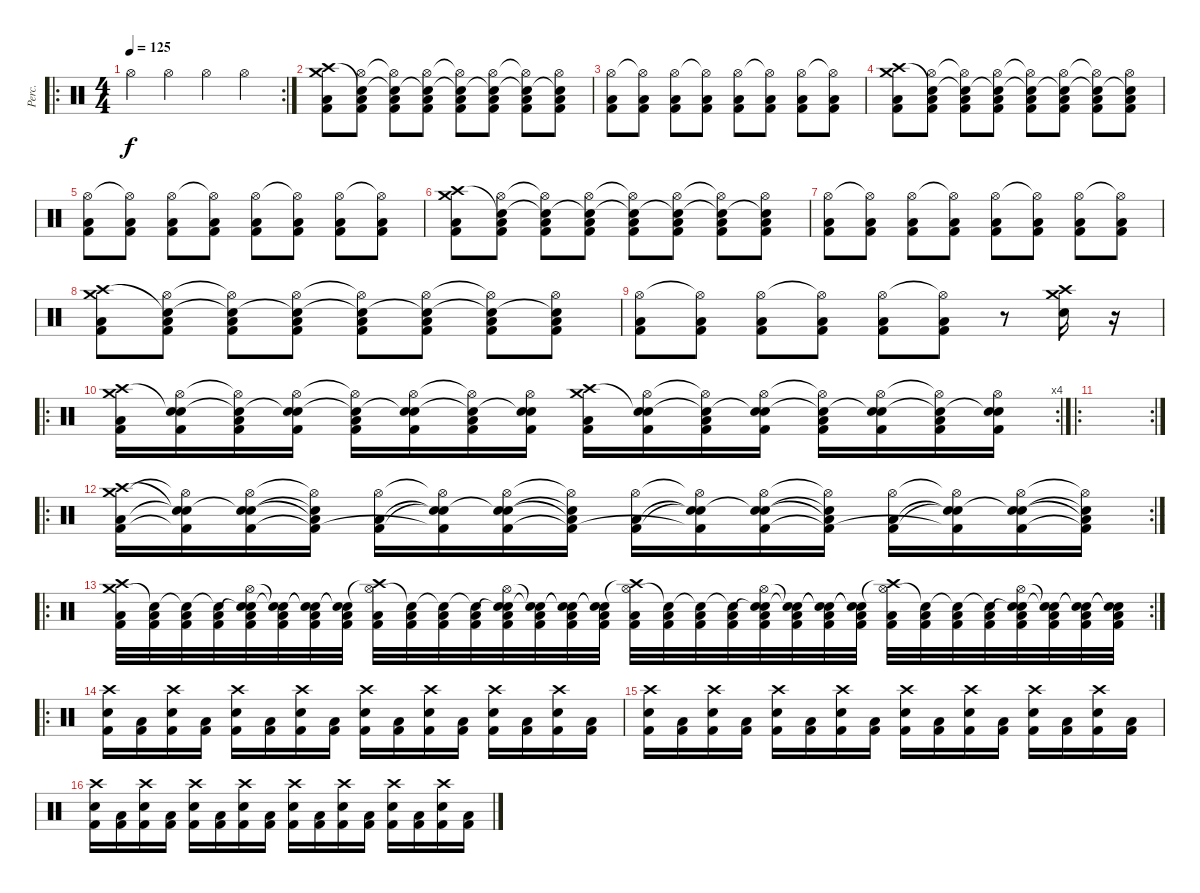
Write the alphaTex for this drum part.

\track ("Perc." "Perc.") {instrument percussion}
\staff {score}
\articulation defaults
\ro
\rc 2
\ts (4 4)
\tempo 125
\clef neutral
\ks c "Hi-Hat (open)".4{dy f} "Hi-Hat (open)".4 "Hi-Hat (open)".4 "Hi-Hat (open)".4
|
("Crash medium (hit)" "Crash high (hit)" "Low Floor Tom (hit)" "Kick (hit) 2").8 ("Hi-Hat (open)" "Snare (hit)"{t} "Low Floor Tom (hit)" "Kick (hit) 2").8 ("Hi-Hat (open)"{t} "Snare (hit)"{t} "Low Floor Tom (hit)" "Kick (hit) 2").8 ("Hi-Hat (open)" "Snare (hit)"{t} "Low Floor Tom (hit)" "Kick (hit) 2").8 ("Hi-Hat (open)"{t} "Snare (hit)"{t} "Low Floor Tom (hit)" "Kick (hit) 2").8 ("Hi-Hat (open)" "Snare (hit)"{t} "Low Floor Tom (hit)" "Kick (hit) 2").8 ("Hi-Hat (open)"{t} "Snare (hit)"{t} "Low Floor Tom (hit)" "Kick (hit) 2").8 ("Hi-Hat (open)" "Snare (hit)"{t} "Low Floor Tom (hit)" "Kick (hit) 2").8 |
("Hi-Hat (open)" "Low Floor Tom (hit)" "Kick (hit) 2").8 ("Hi-Hat (open)"{t} "Low Floor Tom (hit)" "Kick (hit) 2").8 ("Hi-Hat (open)" "Low Floor Tom (hit)" "Kick (hit) 2").8 ("Hi-Hat (open)"{t} "Low Floor Tom (hit)" "Kick (hit) 2").8 ("Hi-Hat (open)" "Low Floor Tom (hit)" "Kick (hit) 2").8 ("Hi-Hat (open)"{t} "Low Floor Tom (hit)" "Kick (hit) 2").8 ("Hi-Hat (open)" "Low Floor Tom (hit)" "Kick (hit) 2").8 ("Hi-Hat (open)"{t} "Low Floor Tom (hit)" "Kick (hit) 2").8 |
("Crash medium (hit)" "Crash high (hit)" "Low Floor Tom (hit)" "Kick (hit) 2").8 ("Hi-Hat (open)" "Snare (hit)"{t} "Low Floor Tom (hit)" "Kick (hit) 2").8 ("Hi-Hat (open)"{t} "Snare (hit)"{t} "Low Floor Tom (hit)" "Kick (hit) 2").8 ("Hi-Hat (open)" "Snare (hit)"{t} "Low Floor Tom (hit)" "Kick (hit) 2").8 ("Hi-Hat (open)"{t} "Snare (hit)"{t} "Low Floor Tom (hit)" "Kick (hit) 2").8 ("Hi-Hat (open)" "Snare (hit)"{t} "Low Floor Tom (hit)" "Kick (hit) 2").8 ("Hi-Hat (open)"{t} "Snare (hit)"{t} "Low Floor Tom (hit)" "Kick (hit) 2").8 ("Hi-Hat (open)" "Snare (hit)"{t} "Low Floor Tom (hit)" "Kick (hit) 2").8 |
("Hi-Hat (open)" "Low Floor Tom (hit)" "Kick (hit) 2").8 ("Hi-Hat (open)"{t} "Low Floor Tom (hit)" "Kick (hit) 2").8 ("Hi-Hat (open)" "Low Floor Tom (hit)" "Kick (hit) 2").8 ("Hi-Hat (open)"{t} "Low Floor Tom (hit)" "Kick (hit) 2").8 ("Hi-Hat (open)" "Low Floor Tom (hit)" "Kick (hit) 2").8 ("Hi-Hat (open)"{t} "Low Floor Tom (hit)" "Kick (hit) 2").8 ("Hi-Hat (open)" "Low Floor Tom (hit)" "Kick (hit) 2").8 ("Hi-Hat (open)"{t} "Low Floor Tom (hit)" "Kick (hit) 2").8 |
("Crash medium (hit)" "Crash high (hit)" "Low Floor Tom (hit)" "Kick (hit) 2").8 ("Hi-Hat (open)" "Snare (hit)"{t} "Low Floor Tom (hit)" "Kick (hit) 2").8 ("Hi-Hat (open)"{t} "Snare (hit)"{t} "Low Floor Tom (hit)" "Kick (hit) 2").8 ("Hi-Hat (open)" "Snare (hit)"{t} "Low Floor Tom (hit)" "Kick (hit) 2").8 ("Hi-Hat (open)"{t} "Snare (hit)"{t} "Low Floor Tom (hit)" "Kick (hit) 2").8 ("Hi-Hat (open)" "Snare (hit)"{t} "Low Floor Tom (hit)" "Kick (hit) 2").8 ("Hi-Hat (open)"{t} "Snare (hit)"{t} "Low Floor Tom (hit)" "Kick (hit) 2").8 ("Hi-Hat (open)" "Snare (hit)"{t} "Low Floor Tom (hit)" "Kick (hit) 2").8 |
("Hi-Hat (open)" "Low Floor Tom (hit)" "Kick (hit) 2").8 ("Hi-Hat (open)"{t} "Low Floor Tom (hit)" "Kick (hit) 2").8 ("Hi-Hat (open)" "Low Floor Tom (hit)" "Kick (hit) 2").8 ("Hi-Hat (open)"{t} "Low Floor Tom (hit)" "Kick (hit) 2").8 ("Hi-Hat (open)" "Low Floor Tom (hit)" "Kick (hit) 2").8 ("Hi-Hat (open)"{t} "Low Floor Tom (hit)" "Kick (hit) 2").8 ("Hi-Hat (open)" "Low Floor Tom (hit)" "Kick (hit) 2").8 ("Hi-Hat (open)"{t} "Low Floor Tom (hit)" "Kick (hit) 2").8 |
("Crash medium (hit)" "Crash high (hit)" "Low Floor Tom (hit)" "Kick (hit) 2").8 ("Hi-Hat (open)" "Snare (hit)"{t} "Low Floor Tom (hit)" "Kick (hit) 2").8 ("Hi-Hat (open)"{t} "Snare (hit)"{t} "Low Floor Tom (hit)" "Kick (hit) 2").8 ("Hi-Hat (open)" "Snare (hit)"{t} "Low Floor Tom (hit)" "Kick (hit) 2").8 ("Hi-Hat (open)"{t} "Snare (hit)"{t} "Low Floor Tom (hit)" "Kick (hit) 2").8 ("Hi-Hat (open)" "Snare (hit)"{t} "Low Floor Tom (hit)" "Kick (hit) 2").8 ("Hi-Hat (open)"{t} "Snare (hit)"{t} "Low Floor Tom (hit)" "Kick (hit) 2").8 ("Hi-Hat (open)" "Snare (hit)"{t} "Low Floor Tom (hit)" "Kick (hit) 2").8 |
("Hi-Hat (open)" "Low Floor Tom (hit)" "Kick (hit) 2").8 ("Hi-Hat (open)"{t} "Low Floor Tom (hit)" "Kick (hit) 2").8 ("Hi-Hat (open)" "Low Floor Tom (hit)" "Kick (hit) 2").8 ("Hi-Hat (open)"{t} "Low Floor Tom (hit)" "Kick (hit) 2").8 ("Hi-Hat (open)" "Low Floor Tom (hit)" "Kick (hit) 2").8 ("Hi-Hat (open)"{t} "Low Floor Tom (hit)" "Kick (hit) 2").8 r.8 ("Crash high (hit)" "Crash medium (hit)" "Snare (hit) 2").16 r.16 |
\ro
\rc 4
("Crash medium (hit)" "Crash high (hit)" "Low Floor Tom (hit)" "Kick (hit) 2").16 ("Hi-Hat (open)" "Snare (hit)"{t} "Snare (hit) 2" "Kick (hit) 2").16 ("Hi-Hat (open)"{t} "Snare (hit)"{t} "Low Floor Tom (hit)" "Kick (hit) 2").16 ("Hi-Hat (open)" "Snare (hit)"{t} "Snare (hit) 2" "Kick (hit) 2").16 ("Hi-Hat (open)"{t} "Snare (hit)"{t} "Low Floor Tom (hit)" "Kick (hit) 2").16 ("Hi-Hat (open)" "Snare (hit)"{t} "Snare (hit) 2" "Kick (hit) 2").16 ("Hi-Hat (open)"{t} "Snare (hit)"{t} "Low Floor Tom (hit)" "Kick (hit) 2").16 ("Hi-Hat (open)" "Snare (hit)"{t} "Snare (hit) 2" "Kick (hit) 2").16 ("Crash medium (hit)" "Crash high (hit)" "Low Floor Tom (hit)" "Kick (hit) 2").16 ("Hi-Hat (open)" "Snare (hit)"{t} "Snare (hit) 2" "Kick (hit) 2").16 ("Hi-Hat (open)"{t} "Snare (hit)"{t} "Low Floor Tom (hit)" "Kick (hit) 2").16 ("Hi-Hat (open)" "Snare (hit)"{t} "Snare (hit) 2" "Kick (hit) 2").16 ("Hi-Hat (open)"{t} "Snare (hit)"{t} "Low Floor Tom (hit)" "Kick (hit) 2").16 ("Hi-Hat (open)" "Snare (hit)"{t} "Snare (hit) 2" "Kick (hit) 2").16 ("Hi-Hat (open)"{t} "Snare (hit)"{t} "Low Floor Tom (hit)" "Kick (hit) 2").16 ("Hi-Hat (open)" "Snare (hit)"{t} "Snare (hit) 2" "Kick (hit) 2").16 |
\ro
\rc 2
|
\ro
\rc 2
("Crash medium (hit)" "Crash high (hit)" "Low Floor Tom (hit)" "Kick (hit) 2").16 ("Hi-Hat (open)"{t} "Snare (hit)"{t} "Snare (hit) 2"{t} "Kick (hit) 2"{t}).16 ("Hi-Hat (open)" "Snare (hit)"{t} "Snare (hit) 2" "Kick (hit) 2").16 ("Hi-Hat (open)"{t} "Snare (hit)"{t} "Low Floor Tom (hit)"{t} "Kick (hit) 2"{t}).16 ("Hi-Hat (open)" "Low Floor Tom (hit)" "Kick (hit) 2").16 ("Hi-Hat (open)"{t} "Snare (hit)"{t} "Snare (hit) 2"{t} "Kick (hit) 2"{t}).16 ("Hi-Hat (open)" "Snare (hit)"{t} "Snare (hit) 2" "Kick (hit) 2").16 ("Hi-Hat (open)"{t} "Snare (hit)"{t} "Low Floor Tom (hit)"{t} "Kick (hit) 2"{t}).16 ("Hi-Hat (open)" "Low Floor Tom (hit)" "Kick (hit) 2").16 ("Hi-Hat (open)"{t} "Snare (hit)"{t} "Snare (hit) 2"{t} "Kick (hit) 2"{t}).16 ("Hi-Hat (open)" "Snare (hit)"{t} "Snare (hit) 2" "Kick (hit) 2").16 ("Hi-Hat (open)"{t} "Snare (hit)"{t} "Low Floor Tom (hit)"{t} "Kick (hit) 2"{t}).16 ("Hi-Hat (open)" "Low Floor Tom (hit)" "Kick (hit) 2").16 ("Hi-Hat (open)"{t} "Snare (hit)"{t} "Snare (hit) 2"{t} "Kick (hit) 2"{t}).16 ("Hi-Hat (open)" "Snare (hit)"{t} "Snare (hit) 2" "Kick (hit) 2").16 ("Hi-Hat (open)"{t} "Snare (hit)"{t} "Low Floor Tom (hit)"{t} "Kick (hit) 2"{t}).16 |
\ro
\rc 2
("Crash medium (hit)" "Crash high (hit)" "Low Floor Tom (hit)" "Kick (hit) 2").32 ("Snare (hit)"{t} "Low Floor Tom (hit)" "Kick (hit) 2").32 ("Snare (hit)"{t} "Low Floor Tom (hit)" "Kick (hit) 2").32 ("Snare (hit)"{t} "Low Floor Tom (hit)" "Kick (hit) 2").32 ("Hi-Hat (open)" "Snare (hit)"{t} "Low Floor Tom (hit)" "Snare (hit) 2" "Kick (hit) 2").32 ("Snare (hit)"{t} "Snare (hit)"{t} "Low Floor Tom (hit)" "Kick (hit) 2").32 ("Snare (hit)"{t} "Snare (hit)"{t} "Low Floor Tom (hit)" "Kick (hit) 2").32 ("Snare (hit)"{t} "Snare (hit)"{t} "Low Floor Tom (hit)" "Kick (hit) 2").32 ("Hi-Hat (open)" "Crash high (hit)"{t} "Low Floor Tom (hit)" "Kick (hit) 2").32 ("Snare (hit)"{t} "Low Floor Tom (hit)" "Kick (hit) 2").32 ("Snare (hit)"{t} "Low Floor Tom (hit)" "Kick (hit) 2").32 ("Snare (hit)"{t} "Low Floor Tom (hit)" "Kick (hit) 2").32 ("Hi-Hat (open)" "Snare (hit)"{t} "Low Floor Tom (hit)" "Snare (hit) 2" "Kick (hit) 2").32 ("Snare (hit)"{t} "Snare (hit)"{t} "Low Floor Tom (hit)" "Kick (hit) 2").32 ("Snare (hit)"{t} "Snare (hit)"{t} "Low Floor Tom (hit)" "Kick (hit) 2").32 ("Snare (hit)"{t} "Snare (hit)"{t} "Low Floor Tom (hit)" "Kick (hit) 2").32 ("Hi-Hat (open)" "Crash high (hit)"{t} "Low Floor Tom (hit)" "Kick (hit) 2").32 ("Snare (hit)"{t} "Low Floor Tom (hit)" "Kick (hit) 2").32 ("Snare (hit)"{t} "Low Floor Tom (hit)" "Kick (hit) 2").32 ("Snare (hit)"{t} "Low Floor Tom (hit)" "Kick (hit) 2").32 ("Hi-Hat (open)" "Snare (hit)"{t} "Low Floor Tom (hit)" "Snare (hit) 2" "Kick (hit) 2").32 ("Snare (hit)"{t} "Snare (hit)"{t} "Low Floor Tom (hit)" "Kick (hit) 2").32 ("Snare (hit)"{t} "Snare (hit)"{t} "Low Floor Tom (hit)" "Kick (hit) 2").32 ("Snare (hit)"{t} "Snare (hit)"{t} "Low Floor Tom (hit)" "Kick (hit) 2").32 ("Hi-Hat (open)" "Crash high (hit)"{t} "Low Floor Tom (hit)" "Kick (hit) 2").32 ("Snare (hit)"{t} "Low Floor Tom (hit)" "Kick (hit) 2").32 ("Snare (hit)"{t} "Low Floor Tom (hit)" "Kick (hit) 2").32 ("Snare (hit)"{t} "Low Floor Tom (hit)" "Kick (hit) 2").32 ("Hi-Hat (open)" "Snare (hit)"{t} "Low Floor Tom (hit)" "Snare (hit) 2" "Kick (hit) 2").32 ("Snare (hit)"{t} "Snare (hit)"{t} "Low Floor Tom (hit)" "Kick (hit) 2").32 ("Snare (hit)"{t} "Snare (hit)"{t} "Low Floor Tom (hit)" "Kick (hit) 2").32 ("Snare (hit)"{t} "Snare (hit)"{t} "Low Floor Tom (hit)" "Kick (hit) 2").32 |
\ro
("Crash high (hit)" "Snare (hit) 2" "Kick (hit) 2").16 ("Low Floor Tom (hit)" "Kick (hit) 2").16 ("Crash high (hit)" "Snare (hit) 2" "Kick (hit) 2").16 ("Low Floor Tom (hit)" "Kick (hit) 2").16 ("Crash high (hit)" "Snare (hit) 2" "Kick (hit) 2").16 ("Low Floor Tom (hit)" "Kick (hit) 2").16 ("Crash high (hit)" "Snare (hit) 2" "Kick (hit) 2").16 ("Low Floor Tom (hit)" "Kick (hit) 2").16 ("Crash high (hit)" "Snare (hit) 2" "Kick (hit) 2").16 ("Low Floor Tom (hit)" "Kick (hit) 2").16 ("Crash high (hit)" "Snare (hit) 2" "Kick (hit) 2").16 ("Low Floor Tom (hit)" "Kick (hit) 2").16 ("Crash high (hit)" "Snare (hit) 2" "Kick (hit) 2").16 ("Low Floor Tom (hit)" "Kick (hit) 2").16 ("Crash high (hit)" "Snare (hit) 2" "Kick (hit) 2").16 ("Low Floor Tom (hit)" "Kick (hit) 2").16 |
("Crash high (hit)" "Snare (hit) 2" "Kick (hit) 2").16 ("Low Floor Tom (hit)" "Kick (hit) 2").16 ("Crash high (hit)" "Snare (hit) 2" "Kick (hit) 2").16 ("Low Floor Tom (hit)" "Kick (hit) 2").16 ("Crash high (hit)" "Snare (hit) 2" "Kick (hit) 2").16 ("Low Floor Tom (hit)" "Kick (hit) 2").16 ("Crash high (hit)" "Snare (hit) 2" "Kick (hit) 2").16 ("Low Floor Tom (hit)" "Kick (hit) 2").16 ("Crash high (hit)" "Snare (hit) 2" "Kick (hit) 2").16 ("Low Floor Tom (hit)" "Kick (hit) 2").16 ("Crash high (hit)" "Snare (hit) 2" "Kick (hit) 2").16 ("Low Floor Tom (hit)" "Kick (hit) 2").16 ("Crash high (hit)" "Snare (hit) 2" "Kick (hit) 2").16 ("Low Floor Tom (hit)" "Kick (hit) 2").16 ("Crash high (hit)" "Snare (hit) 2" "Kick (hit) 2").16 ("Low Floor Tom (hit)" "Kick (hit) 2").16 |
("Crash high (hit)" "Snare (hit) 2" "Kick (hit) 2").16 ("Low Floor Tom (hit)" "Kick (hit) 2").16 ("Crash high (hit)" "Snare (hit) 2" "Kick (hit) 2").16 ("Low Floor Tom (hit)" "Kick (hit) 2").16 ("Crash high (hit)" "Snare (hit) 2" "Kick (hit) 2").16 ("Low Floor Tom (hit)" "Kick (hit) 2").16 ("Crash high (hit)" "Snare (hit) 2" "Kick (hit) 2").16 ("Low Floor Tom (hit)" "Kick (hit) 2").16 ("Crash high (hit)" "Snare (hit) 2" "Kick (hit) 2").16 ("Low Floor Tom (hit)" "Kick (hit) 2").16 ("Crash high (hit)" "Snare (hit) 2" "Kick (hit) 2").16 ("Low Floor Tom (hit)" "Kick (hit) 2").16 ("Crash high (hit)" "Snare (hit) 2" "Kick (hit) 2").16 ("Low Floor Tom (hit)" "Kick (hit) 2").16 ("Crash high (hit)" "Snare (hit) 2" "Kick (hit) 2").16 ("Low Floor Tom (hit)" "Kick (hit) 2").16
